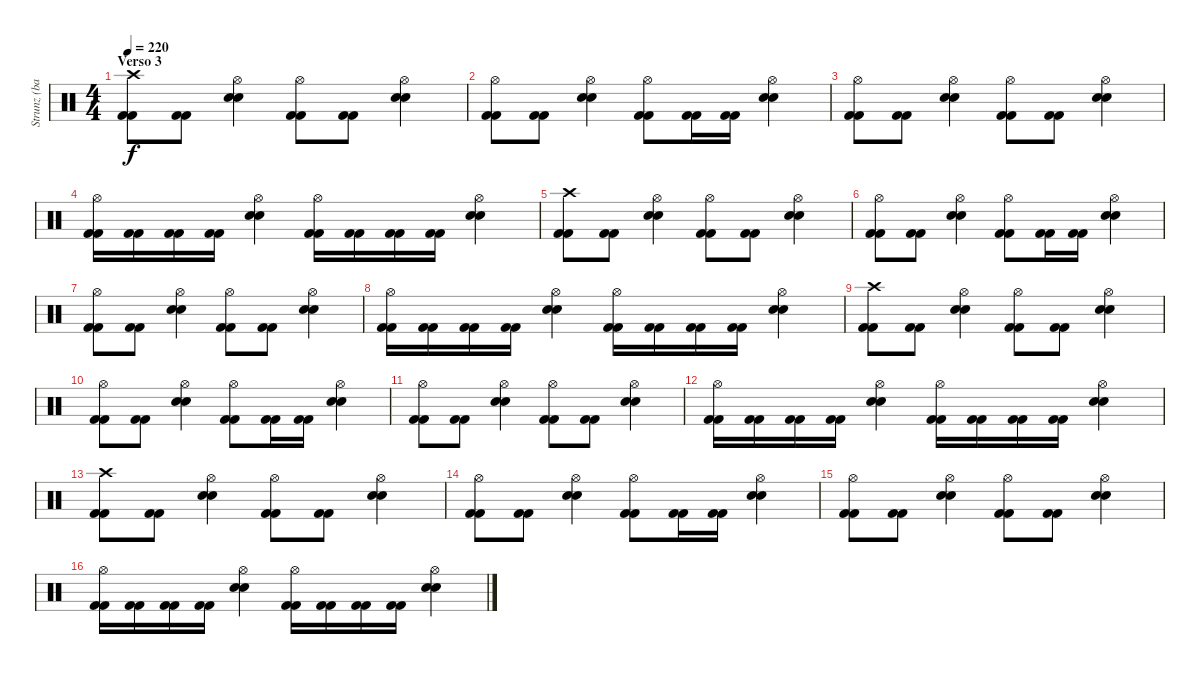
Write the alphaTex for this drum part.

\track ("Strunz (bateria)" "Strunz (ba") {instrument percussion}
\staff {score}
\articulation defaults
\ts (4 4)
\section ("" "Verso 3")
\tempo 220
\clef neutral
\ks c
("Crash high (hit)" "Kick (hit) 2" "Kick (hit) 2").8{dy f} ("Kick (hit) 2" "Kick (hit) 2").8 ("Hi-Hat (open)" "Snare (hit) 2" "Snare (hit) 2").4 ("Hi-Hat (open)" "Kick (hit) 2" "Kick (hit) 2").8 ("Kick (hit) 2" "Kick (hit) 2").8 ("Hi-Hat (open)" "Snare (hit) 2" "Snare (hit) 2").4 |
("Hi-Hat (open)" "Kick (hit) 2" "Kick (hit) 2").8 ("Kick (hit) 2" "Kick (hit) 2").8 ("Hi-Hat (open)" "Snare (hit) 2" "Snare (hit) 2").4 ("Hi-Hat (open)" "Kick (hit) 2" "Kick (hit) 2").8 ("Kick (hit) 2" "Kick (hit) 2").16 ("Kick (hit) 2" "Kick (hit) 2").16 ("Hi-Hat (open)" "Snare (hit) 2" "Snare (hit) 2").4 |
("Hi-Hat (open)" "Kick (hit) 2" "Kick (hit) 2").8 ("Kick (hit) 2" "Kick (hit) 2").8 ("Hi-Hat (open)" "Snare (hit) 2" "Snare (hit) 2").4 ("Hi-Hat (open)" "Kick (hit) 2" "Kick (hit) 2").8 ("Kick (hit) 2" "Kick (hit) 2").8 ("Hi-Hat (open)" "Snare (hit) 2" "Snare (hit) 2").4 |
("Hi-Hat (open)" "Kick (hit) 2" "Kick (hit) 2").16 ("Kick (hit) 2" "Kick (hit) 2").16 ("Kick (hit) 2" "Kick (hit) 2").16 ("Kick (hit) 2" "Kick (hit) 2").16 ("Hi-Hat (open)" "Snare (hit) 2" "Snare (hit) 2").4 ("Hi-Hat (open)" "Kick (hit) 2" "Kick (hit) 2").16 ("Kick (hit) 2" "Kick (hit) 2").16 ("Kick (hit) 2" "Kick (hit) 2").16 ("Kick (hit) 2" "Kick (hit) 2").16 ("Hi-Hat (open)" "Snare (hit) 2" "Snare (hit) 2").4 |
("Crash high (hit)" "Kick (hit) 2" "Kick (hit) 2").8 ("Kick (hit) 2" "Kick (hit) 2").8 ("Hi-Hat (open)" "Snare (hit) 2" "Snare (hit) 2").4 ("Hi-Hat (open)" "Kick (hit) 2" "Kick (hit) 2").8 ("Kick (hit) 2" "Kick (hit) 2").8 ("Hi-Hat (open)" "Snare (hit) 2" "Snare (hit) 2").4 |
("Hi-Hat (open)" "Kick (hit) 2" "Kick (hit) 2").8 ("Kick (hit) 2" "Kick (hit) 2").8 ("Hi-Hat (open)" "Snare (hit) 2" "Snare (hit) 2").4 ("Hi-Hat (open)" "Kick (hit) 2" "Kick (hit) 2").8 ("Kick (hit) 2" "Kick (hit) 2").16 ("Kick (hit) 2" "Kick (hit) 2").16 ("Hi-Hat (open)" "Snare (hit) 2" "Snare (hit) 2").4 |
("Hi-Hat (open)" "Kick (hit) 2" "Kick (hit) 2").8 ("Kick (hit) 2" "Kick (hit) 2").8 ("Hi-Hat (open)" "Snare (hit) 2" "Snare (hit) 2").4 ("Hi-Hat (open)" "Kick (hit) 2" "Kick (hit) 2").8 ("Kick (hit) 2" "Kick (hit) 2").8 ("Hi-Hat (open)" "Snare (hit) 2" "Snare (hit) 2").4 |
("Hi-Hat (open)" "Kick (hit) 2" "Kick (hit) 2").16 ("Kick (hit) 2" "Kick (hit) 2").16 ("Kick (hit) 2" "Kick (hit) 2").16 ("Kick (hit) 2" "Kick (hit) 2").16 ("Hi-Hat (open)" "Snare (hit) 2" "Snare (hit) 2").4 ("Hi-Hat (open)" "Kick (hit) 2" "Kick (hit) 2").16 ("Kick (hit) 2" "Kick (hit) 2").16 ("Kick (hit) 2" "Kick (hit) 2").16 ("Kick (hit) 2" "Kick (hit) 2").16 ("Hi-Hat (open)" "Snare (hit) 2" "Snare (hit) 2").4 |
("Crash high (hit)" "Kick (hit) 2" "Kick (hit) 2").8 ("Kick (hit) 2" "Kick (hit) 2").8 ("Hi-Hat (open)" "Snare (hit) 2" "Snare (hit) 2").4 ("Hi-Hat (open)" "Kick (hit) 2" "Kick (hit) 2").8 ("Kick (hit) 2" "Kick (hit) 2").8 ("Hi-Hat (open)" "Snare (hit) 2" "Snare (hit) 2").4 |
("Hi-Hat (open)" "Kick (hit) 2" "Kick (hit) 2").8 ("Kick (hit) 2" "Kick (hit) 2").8 ("Hi-Hat (open)" "Snare (hit) 2" "Snare (hit) 2").4 ("Hi-Hat (open)" "Kick (hit) 2" "Kick (hit) 2").8 ("Kick (hit) 2" "Kick (hit) 2").16 ("Kick (hit) 2" "Kick (hit) 2").16 ("Hi-Hat (open)" "Snare (hit) 2" "Snare (hit) 2").4 |
("Hi-Hat (open)" "Kick (hit) 2" "Kick (hit) 2").8 ("Kick (hit) 2" "Kick (hit) 2").8 ("Hi-Hat (open)" "Snare (hit) 2" "Snare (hit) 2").4 ("Hi-Hat (open)" "Kick (hit) 2" "Kick (hit) 2").8 ("Kick (hit) 2" "Kick (hit) 2").8 ("Hi-Hat (open)" "Snare (hit) 2" "Snare (hit) 2").4 |
("Hi-Hat (open)" "Kick (hit) 2" "Kick (hit) 2").16 ("Kick (hit) 2" "Kick (hit) 2").16 ("Kick (hit) 2" "Kick (hit) 2").16 ("Kick (hit) 2" "Kick (hit) 2").16 ("Hi-Hat (open)" "Snare (hit) 2" "Snare (hit) 2").4 ("Hi-Hat (open)" "Kick (hit) 2" "Kick (hit) 2").16 ("Kick (hit) 2" "Kick (hit) 2").16 ("Kick (hit) 2" "Kick (hit) 2").16 ("Kick (hit) 2" "Kick (hit) 2").16 ("Hi-Hat (open)" "Snare (hit) 2" "Snare (hit) 2").4 |
("Crash high (hit)" "Kick (hit) 2" "Kick (hit) 2").8 ("Kick (hit) 2" "Kick (hit) 2").8 ("Hi-Hat (open)" "Snare (hit) 2" "Snare (hit) 2").4 ("Hi-Hat (open)" "Kick (hit) 2" "Kick (hit) 2").8 ("Kick (hit) 2" "Kick (hit) 2").8 ("Hi-Hat (open)" "Snare (hit) 2" "Snare (hit) 2").4 |
("Hi-Hat (open)" "Kick (hit) 2" "Kick (hit) 2").8 ("Kick (hit) 2" "Kick (hit) 2").8 ("Hi-Hat (open)" "Snare (hit) 2" "Snare (hit) 2").4 ("Hi-Hat (open)" "Kick (hit) 2" "Kick (hit) 2").8 ("Kick (hit) 2" "Kick (hit) 2").16 ("Kick (hit) 2" "Kick (hit) 2").16 ("Hi-Hat (open)" "Snare (hit) 2" "Snare (hit) 2").4 |
("Hi-Hat (open)" "Kick (hit) 2" "Kick (hit) 2").8 ("Kick (hit) 2" "Kick (hit) 2").8 ("Hi-Hat (open)" "Snare (hit) 2" "Snare (hit) 2").4 ("Hi-Hat (open)" "Kick (hit) 2" "Kick (hit) 2").8 ("Kick (hit) 2" "Kick (hit) 2").8 ("Hi-Hat (open)" "Snare (hit) 2" "Snare (hit) 2").4 |
("Hi-Hat (open)" "Kick (hit) 2" "Kick (hit) 2").16 ("Kick (hit) 2" "Kick (hit) 2").16 ("Kick (hit) 2" "Kick (hit) 2").16 ("Kick (hit) 2" "Kick (hit) 2").16 ("Hi-Hat (open)" "Snare (hit) 2" "Snare (hit) 2").4 ("Hi-Hat (open)" "Kick (hit) 2" "Kick (hit) 2").16 ("Kick (hit) 2" "Kick (hit) 2").16 ("Kick (hit) 2" "Kick (hit) 2").16 ("Kick (hit) 2" "Kick (hit) 2").16 ("Hi-Hat (open)" "Snare (hit) 2" "Snare (hit) 2").4
